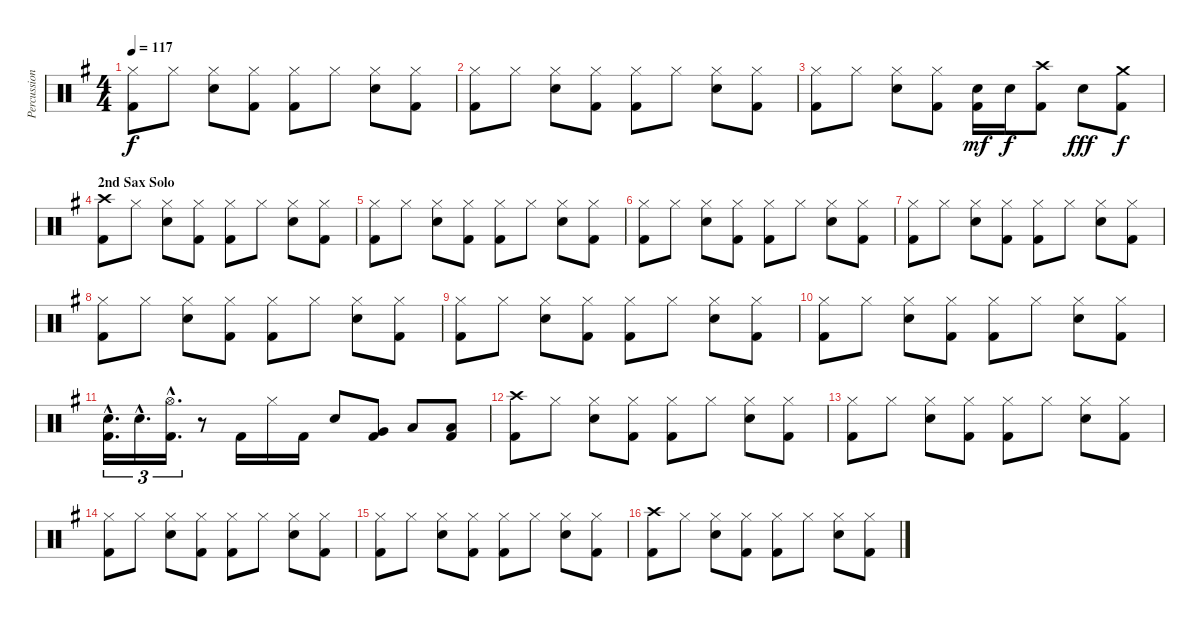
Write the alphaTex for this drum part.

\track ("Percussion" "Percussion") {instrument percussion}
\staff {score}
\articulation defaults
\ts (4 4)
\tempo 117
\clef neutral
\ks g
("Hi-Hat (closed)" "Kick (hit) 2").8{dy f} "Hi-Hat (closed)".8 ("Hi-Hat (closed)" "Electric Snare (hit)").8 ("Hi-Hat (closed)" "Kick (hit) 2").8 ("Hi-Hat (closed)" "Kick (hit) 2").8 "Hi-Hat (closed)".8 ("Hi-Hat (closed)" "Electric Snare (hit)").8 ("Hi-Hat (closed)" "Kick (hit) 2").8 |
("Hi-Hat (closed)" "Kick (hit) 2").8 "Hi-Hat (closed)".8 ("Hi-Hat (closed)" "Electric Snare (hit)").8 ("Hi-Hat (closed)" "Kick (hit) 2").8 ("Hi-Hat (closed)" "Kick (hit) 2").8 "Hi-Hat (closed)".8 ("Hi-Hat (closed)" "Electric Snare (hit)").8 ("Hi-Hat (closed)" "Kick (hit) 2").8 |
("Hi-Hat (closed)" "Kick (hit) 2").8 "Hi-Hat (closed)".8 ("Hi-Hat (closed)" "Electric Snare (hit)").8 ("Hi-Hat (closed)" "Kick (hit) 2").8 ("Electric Snare (hit)" "Kick (hit) 2").16{dy mf} "Electric Snare (hit)".16{dy f} ("Crash high (hit)" "Kick (hit) 2").8 "Electric Snare (hit)".8{dy fff} ("Crash medium (hit)" "Kick (hit) 2").8{dy f} |
\section ("" "2nd Sax Solo")
("Crash high (hit)" "Kick (hit) 2").8 "Hi-Hat (closed)".8 ("Hi-Hat (closed)" "Electric Snare (hit)").8 ("Hi-Hat (closed)" "Kick (hit) 2").8 ("Hi-Hat (closed)" "Kick (hit) 2").8 "Hi-Hat (closed)".8 ("Hi-Hat (closed)" "Electric Snare (hit)").8 ("Hi-Hat (closed)" "Kick (hit) 2").8 |
("Hi-Hat (closed)" "Kick (hit) 2").8 "Hi-Hat (closed)".8 ("Hi-Hat (closed)" "Electric Snare (hit)").8 ("Hi-Hat (closed)" "Kick (hit) 2").8 ("Hi-Hat (closed)" "Kick (hit) 2").8 "Hi-Hat (closed)".8 ("Hi-Hat (closed)" "Electric Snare (hit)").8 ("Hi-Hat (closed)" "Kick (hit) 2").8 |
("Hi-Hat (closed)" "Kick (hit) 2").8 "Hi-Hat (closed)".8 ("Hi-Hat (closed)" "Electric Snare (hit)").8 ("Hi-Hat (closed)" "Kick (hit) 2").8 ("Hi-Hat (closed)" "Kick (hit) 2").8 "Hi-Hat (closed)".8 ("Hi-Hat (closed)" "Electric Snare (hit)").8 ("Hi-Hat (closed)" "Kick (hit) 2").8 |
("Hi-Hat (closed)" "Kick (hit) 2").8 "Hi-Hat (closed)".8 ("Hi-Hat (closed)" "Electric Snare (hit)").8 ("Hi-Hat (closed)" "Kick (hit) 2").8 ("Hi-Hat (closed)" "Kick (hit) 2").8 "Hi-Hat (closed)".8 ("Hi-Hat (closed)" "Electric Snare (hit)").8 ("Hi-Hat (closed)" "Kick (hit) 2").8 |
("Hi-Hat (closed)" "Kick (hit) 2").8 "Hi-Hat (closed)".8 ("Hi-Hat (closed)" "Electric Snare (hit)").8 ("Hi-Hat (closed)" "Kick (hit) 2").8 ("Hi-Hat (closed)" "Kick (hit) 2").8 "Hi-Hat (closed)".8 ("Hi-Hat (closed)" "Electric Snare (hit)").8 ("Hi-Hat (closed)" "Kick (hit) 2").8 |
("Hi-Hat (closed)" "Kick (hit) 2").8 "Hi-Hat (closed)".8 ("Hi-Hat (closed)" "Electric Snare (hit)").8 ("Hi-Hat (closed)" "Kick (hit) 2").8 ("Hi-Hat (closed)" "Kick (hit) 2").8 "Hi-Hat (closed)".8 ("Hi-Hat (closed)" "Electric Snare (hit)").8 ("Hi-Hat (closed)" "Kick (hit) 2").8 |
("Hi-Hat (closed)" "Kick (hit) 2").8 "Hi-Hat (closed)".8 ("Hi-Hat (closed)" "Electric Snare (hit)").8 ("Hi-Hat (closed)" "Kick (hit) 2").8 ("Hi-Hat (closed)" "Kick (hit) 2").8 "Hi-Hat (closed)".8 ("Hi-Hat (closed)" "Electric Snare (hit)").8 ("Hi-Hat (closed)" "Kick (hit) 2").8 |
("Electric Snare (hit)"{hac} "Kick (hit) 2"{hac}).16{d tu (3 2)} "Electric Snare (hit)"{hac}.16{d tu (3 2)} ("Hi-Hat (open)"{hac} "Kick (hit) 2"{hac}).16{d tu (3 2)} r.8 "Kick (hit) 2".16 "Hi-Hat (closed)".16 "Kick (hit) 2".16 "Electric Snare (hit)".8 ("Very Low Tom (hit)" "Kick (hit) 2").8 "Low Floor Tom (hit)".8 ("Low Floor Tom (hit)" "Kick (hit) 2").8 |
("Crash high (hit)" "Kick (hit) 2").8 "Hi-Hat (closed)".8 ("Hi-Hat (closed)" "Electric Snare (hit)").8 ("Hi-Hat (closed)" "Kick (hit) 2").8 ("Hi-Hat (closed)" "Kick (hit) 2").8 "Hi-Hat (closed)".8 ("Hi-Hat (closed)" "Electric Snare (hit)").8 ("Hi-Hat (closed)" "Kick (hit) 2").8 |
("Hi-Hat (closed)" "Kick (hit) 2").8 "Hi-Hat (closed)".8 ("Hi-Hat (closed)" "Electric Snare (hit)").8 ("Hi-Hat (closed)" "Kick (hit) 2").8 ("Hi-Hat (closed)" "Kick (hit) 2").8 "Hi-Hat (closed)".8 ("Hi-Hat (closed)" "Electric Snare (hit)").8 ("Hi-Hat (closed)" "Kick (hit) 2").8 |
("Hi-Hat (closed)" "Kick (hit) 2").8 "Hi-Hat (closed)".8 ("Hi-Hat (closed)" "Electric Snare (hit)").8 ("Hi-Hat (closed)" "Kick (hit) 2").8 ("Hi-Hat (closed)" "Kick (hit) 2").8 "Hi-Hat (closed)".8 ("Hi-Hat (closed)" "Electric Snare (hit)").8 ("Hi-Hat (closed)" "Kick (hit) 2").8 |
("Hi-Hat (closed)" "Kick (hit) 2").8 "Hi-Hat (closed)".8 ("Hi-Hat (closed)" "Electric Snare (hit)").8 ("Hi-Hat (closed)" "Kick (hit) 2").8 ("Hi-Hat (closed)" "Kick (hit) 2").8 "Hi-Hat (closed)".8 ("Hi-Hat (closed)" "Electric Snare (hit)").8 ("Hi-Hat (closed)" "Kick (hit) 2").8 |
("Crash high (hit)" "Kick (hit) 2").8 "Hi-Hat (closed)".8 ("Hi-Hat (closed)" "Electric Snare (hit)").8 ("Hi-Hat (closed)" "Kick (hit) 2").8 ("Hi-Hat (closed)" "Kick (hit) 2").8 "Hi-Hat (closed)".8 ("Hi-Hat (closed)" "Electric Snare (hit)").8 ("Hi-Hat (closed)" "Kick (hit) 2").8
